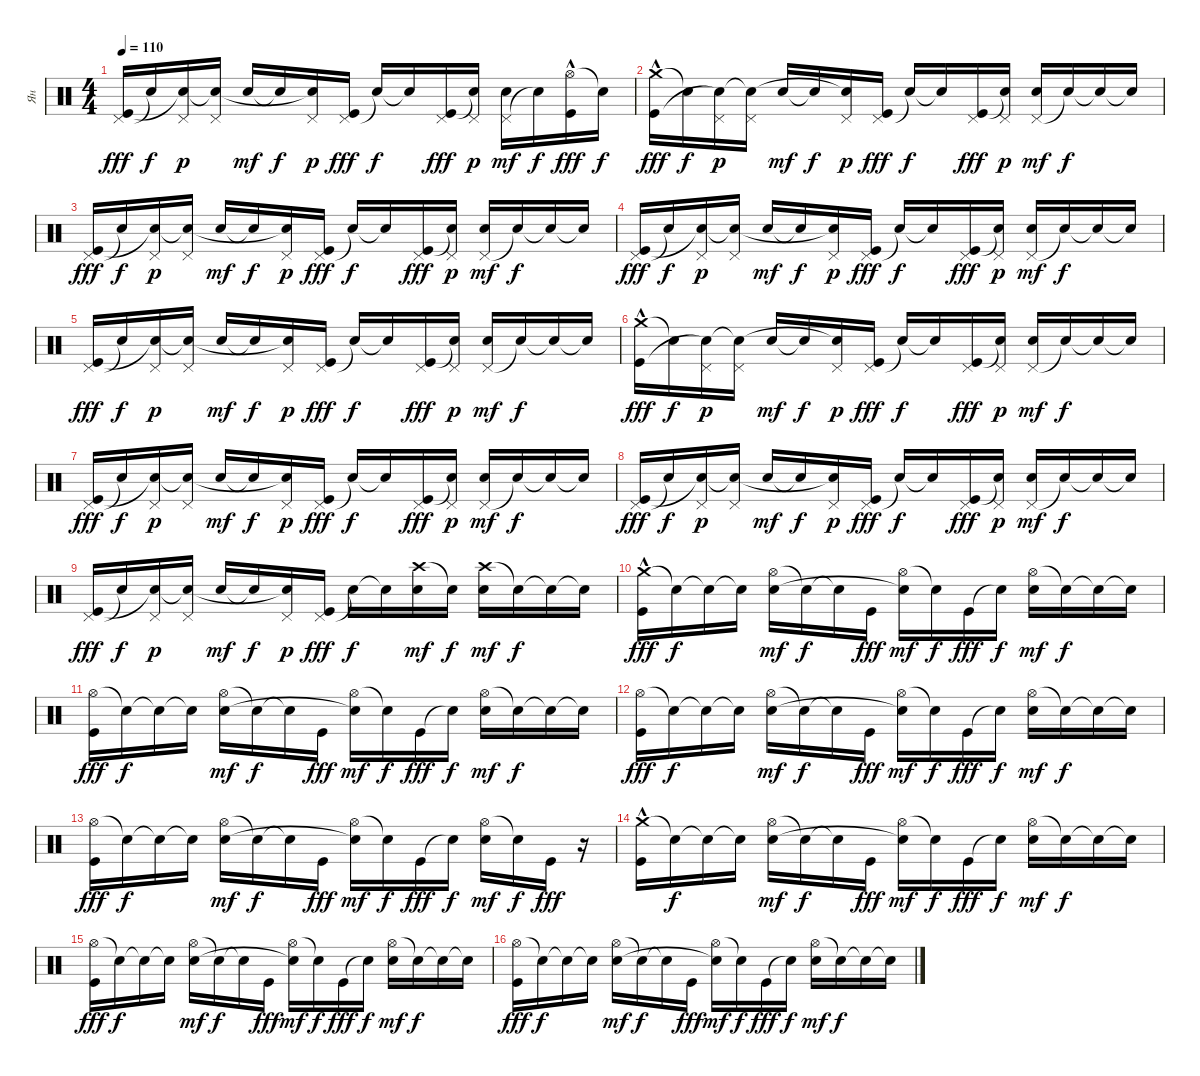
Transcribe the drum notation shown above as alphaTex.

\track ("Ян " "Ян ") {instrument percussion}
\staff
\articulation defaults
\ts (4 4)
\tempo 110
\clef neutral
\ks c
("Pedal Hi-Hat (hit)" "Kick (hit)").16{dy fff} "Snare (hit)"{t}.16{dy f} ("Pedal Hi-Hat (hit)" "Snare (hit)"{t}).16{dy p} ("Pedal Hi-Hat (hit)" "Snare (hit)"{t}).16 "Snare (hit) 2".16{dy mf} "Snare (hit)"{t}.16{dy f} ("Pedal Hi-Hat (hit)" "Snare (hit)"{t}).16{dy p} ("Pedal Hi-Hat (hit)" "Kick (hit)").16{dy fff} "Snare (hit)"{t}.16{dy f} "Snare (hit)"{t}.16 ("Pedal Hi-Hat (hit)" "Kick (hit)").16{dy fff} ("Pedal Hi-Hat (hit)" "Snare (hit)"{t}).16{dy p} ("Pedal Hi-Hat (hit)" "Snare (hit) 2").16{dy mf} "Snare (hit)"{t}.16{dy f} ("Hi-Hat (open)" "Kick (hit)"{hac}).16{dy fff} "Snare (hit)"{t}.16{dy f} |
("Crash medium (hit)" "Kick (hit)"{hac}).16{dy fff} "Snare (hit)"{t}.16{dy f} ("Pedal Hi-Hat (hit)" "Snare (hit)"{t}).16{dy p} ("Pedal Hi-Hat (hit)" "Snare (hit)"{t}).16 "Snare (hit) 2".16{dy mf} "Snare (hit)"{t}.16{dy f} ("Pedal Hi-Hat (hit)" "Snare (hit)"{t}).16{dy p} ("Pedal Hi-Hat (hit)" "Kick (hit)").16{dy fff} "Snare (hit)"{t}.16{dy f} "Snare (hit)"{t}.16 ("Pedal Hi-Hat (hit)" "Kick (hit)").16{dy fff} ("Pedal Hi-Hat (hit)" "Snare (hit)"{t}).16{dy p} ("Pedal Hi-Hat (hit)" "Snare (hit) 2").16{dy mf} "Snare (hit)"{t}.16{dy f} "Snare (hit)"{t}.16 "Snare (hit)"{t}.16 |
("Pedal Hi-Hat (hit)" "Kick (hit)").16{dy fff} "Snare (hit)"{t}.16{dy f} ("Pedal Hi-Hat (hit)" "Snare (hit)"{t}).16{dy p} ("Pedal Hi-Hat (hit)" "Snare (hit)"{t}).16 "Snare (hit) 2".16{dy mf} "Snare (hit)"{t}.16{dy f} ("Pedal Hi-Hat (hit)" "Snare (hit)"{t}).16{dy p} ("Pedal Hi-Hat (hit)" "Kick (hit)").16{dy fff} "Snare (hit)"{t}.16{dy f} "Snare (hit)"{t}.16 ("Pedal Hi-Hat (hit)" "Kick (hit)").16{dy fff} ("Pedal Hi-Hat (hit)" "Snare (hit)"{t}).16{dy p} ("Pedal Hi-Hat (hit)" "Snare (hit) 2").16{dy mf} "Snare (hit)"{t}.16{dy f} "Snare (hit)"{t}.16 "Snare (hit)"{t}.16 |
("Pedal Hi-Hat (hit)" "Kick (hit)").16{dy fff} "Snare (hit)"{t}.16{dy f} ("Pedal Hi-Hat (hit)" "Snare (hit)"{t}).16{dy p} ("Pedal Hi-Hat (hit)" "Snare (hit)"{t}).16 "Snare (hit) 2".16{dy mf} "Snare (hit)"{t}.16{dy f} ("Pedal Hi-Hat (hit)" "Snare (hit)"{t}).16{dy p} ("Pedal Hi-Hat (hit)" "Kick (hit)").16{dy fff} "Snare (hit)"{t}.16{dy f} "Snare (hit)"{t}.16 ("Pedal Hi-Hat (hit)" "Kick (hit)").16{dy fff} ("Pedal Hi-Hat (hit)" "Snare (hit)"{t}).16{dy p} ("Pedal Hi-Hat (hit)" "Snare (hit) 2").16{dy mf} "Snare (hit)"{t}.16{dy f} "Snare (hit)"{t}.16 "Snare (hit)"{t}.16 |
("Pedal Hi-Hat (hit)" "Kick (hit)").16{dy fff} "Snare (hit)"{t}.16{dy f} ("Pedal Hi-Hat (hit)" "Snare (hit)"{t}).16{dy p} ("Pedal Hi-Hat (hit)" "Snare (hit)"{t}).16 "Snare (hit) 2".16{dy mf} "Snare (hit)"{t}.16{dy f} ("Pedal Hi-Hat (hit)" "Snare (hit)"{t}).16{dy p} ("Pedal Hi-Hat (hit)" "Kick (hit)").16{dy fff} "Snare (hit)"{t}.16{dy f} "Snare (hit)"{t}.16 ("Pedal Hi-Hat (hit)" "Kick (hit)").16{dy fff} ("Pedal Hi-Hat (hit)" "Snare (hit)"{t}).16{dy p} ("Pedal Hi-Hat (hit)" "Snare (hit) 2").16{dy mf} "Snare (hit)"{t}.16{dy f} "Snare (hit)"{t}.16 "Snare (hit)"{t}.16 |
("Crash medium (hit)" "Kick (hit)"{hac}).16{dy fff} "Snare (hit)"{t}.16{dy f} ("Pedal Hi-Hat (hit)" "Snare (hit)"{t}).16{dy p} ("Pedal Hi-Hat (hit)" "Snare (hit)"{t}).16 "Snare (hit) 2".16{dy mf} "Snare (hit)"{t}.16{dy f} ("Pedal Hi-Hat (hit)" "Snare (hit)"{t}).16{dy p} ("Pedal Hi-Hat (hit)" "Kick (hit)").16{dy fff} "Snare (hit)"{t}.16{dy f} "Snare (hit)"{t}.16 ("Pedal Hi-Hat (hit)" "Kick (hit)").16{dy fff} ("Pedal Hi-Hat (hit)" "Snare (hit)"{t}).16{dy p} ("Pedal Hi-Hat (hit)" "Snare (hit) 2").16{dy mf} "Snare (hit)"{t}.16{dy f} "Snare (hit)"{t}.16 "Snare (hit)"{t}.16 |
("Pedal Hi-Hat (hit)" "Kick (hit)").16{dy fff} "Snare (hit)"{t}.16{dy f} ("Pedal Hi-Hat (hit)" "Snare (hit)"{t}).16{dy p} ("Pedal Hi-Hat (hit)" "Snare (hit)"{t}).16 "Snare (hit) 2".16{dy mf} "Snare (hit)"{t}.16{dy f} ("Pedal Hi-Hat (hit)" "Snare (hit)"{t}).16{dy p} ("Pedal Hi-Hat (hit)" "Kick (hit)").16{dy fff} "Snare (hit)"{t}.16{dy f} "Snare (hit)"{t}.16 ("Pedal Hi-Hat (hit)" "Kick (hit)").16{dy fff} ("Pedal Hi-Hat (hit)" "Snare (hit)"{t}).16{dy p} ("Pedal Hi-Hat (hit)" "Snare (hit) 2").16{dy mf} "Snare (hit)"{t}.16{dy f} "Snare (hit)"{t}.16 "Snare (hit)"{t}.16 |
("Pedal Hi-Hat (hit)" "Kick (hit)").16{dy fff} "Snare (hit)"{t}.16{dy f} ("Pedal Hi-Hat (hit)" "Snare (hit)"{t}).16{dy p} ("Pedal Hi-Hat (hit)" "Snare (hit)"{t}).16 "Snare (hit) 2".16{dy mf} "Snare (hit)"{t}.16{dy f} ("Pedal Hi-Hat (hit)" "Snare (hit)"{t}).16{dy p} ("Pedal Hi-Hat (hit)" "Kick (hit)").16{dy fff} "Snare (hit)"{t}.16{dy f} "Snare (hit)"{t}.16 ("Pedal Hi-Hat (hit)" "Kick (hit)").16{dy fff} ("Pedal Hi-Hat (hit)" "Snare (hit)"{t}).16{dy p} ("Pedal Hi-Hat (hit)" "Snare (hit) 2").16{dy mf} "Snare (hit)"{t}.16{dy f} "Snare (hit)"{t}.16 "Snare (hit)"{t}.16 |
("Pedal Hi-Hat (hit)" "Kick (hit)").16{dy fff} "Snare (hit)"{t}.16{dy f} ("Pedal Hi-Hat (hit)" "Snare (hit)"{t}).16{dy p} ("Pedal Hi-Hat (hit)" "Snare (hit)"{t}).16 "Snare (hit) 2".16{dy mf} "Snare (hit)"{t}.16{dy f} ("Pedal Hi-Hat (hit)" "Snare (hit)"{t}).16{dy p} ("Pedal Hi-Hat (hit)" "Kick (hit)").16{dy fff} "Snare (hit)"{t}.16{dy f} "Snare (hit)"{t}.16 ("Crash high (hit)" "Snare (hit) 2").16{dy mf} "Snare (hit)"{t}.16{dy f} ("Crash high (hit)" "Snare (hit) 2").16{dy mf} "Snare (hit)"{t}.16{dy f} "Snare (hit)"{t}.16 "Snare (hit)"{t}.16 |
("Crash medium (hit)" "Kick (hit)"{hac}).16{dy fff} "Snare (hit)"{t}.16{dy f} "Snare (hit)"{t}.16 "Snare (hit)"{t}.16 ("Hi-Hat (open)" "Snare (hit) 2").16{dy mf} "Snare (hit)"{t}.16{dy f} "Snare (hit)"{t}.16 "Kick (hit)".16{dy fff} ("Hi-Hat (open)" "Snare (hit)"{t}).16{dy mf} "Snare (hit)"{t}.16{dy f} "Kick (hit)".16{dy fff} "Snare (hit)"{t}.16{dy f} ("Hi-Hat (open)" "Snare (hit) 2").16{dy mf} "Snare (hit)"{t}.16{dy f} "Snare (hit)"{t}.16 "Snare (hit)"{t}.16 |
("Hi-Hat (open)" "Kick (hit)").16{dy fff} "Snare (hit)"{t}.16{dy f} "Snare (hit)"{t}.16 "Snare (hit)"{t}.16 ("Hi-Hat (open)" "Snare (hit) 2").16{dy mf} "Snare (hit)"{t}.16{dy f} "Snare (hit)"{t}.16 "Kick (hit)".16{dy fff} ("Hi-Hat (open)" "Snare (hit)"{t}).16{dy mf} "Snare (hit)"{t}.16{dy f} "Kick (hit)".16{dy fff} "Snare (hit)"{t}.16{dy f} ("Hi-Hat (open)" "Snare (hit) 2").16{dy mf} "Snare (hit)"{t}.16{dy f} "Snare (hit)"{t}.16 "Snare (hit)"{t}.16 |
("Hi-Hat (open)" "Kick (hit)").16{dy fff} "Snare (hit)"{t}.16{dy f} "Snare (hit)"{t}.16 "Snare (hit)"{t}.16 ("Hi-Hat (open)" "Snare (hit) 2").16{dy mf} "Snare (hit)"{t}.16{dy f} "Snare (hit)"{t}.16 "Kick (hit)".16{dy fff} ("Hi-Hat (open)" "Snare (hit)"{t}).16{dy mf} "Snare (hit)"{t}.16{dy f} "Kick (hit)".16{dy fff} "Snare (hit)"{t}.16{dy f} ("Hi-Hat (open)" "Snare (hit) 2").16{dy mf} "Snare (hit)"{t}.16{dy f} "Snare (hit)"{t}.16 "Snare (hit)"{t}.16 |
("Hi-Hat (open)" "Kick (hit)").16{dy fff} "Snare (hit)"{t}.16{dy f} "Snare (hit)"{t}.16 "Snare (hit)"{t}.16 ("Hi-Hat (open)" "Snare (hit) 2").16{dy mf} "Snare (hit)"{t}.16{dy f} "Snare (hit)"{t}.16 "Kick (hit)".16{dy fff} ("Hi-Hat (open)" "Snare (hit)"{t}).16{dy mf} "Snare (hit)"{t}.16{dy f} "Kick (hit)".16{dy fff} "Snare (hit)"{t}.16{dy f} ("Hi-Hat (open)" "Snare (hit) 2").16{dy mf} "Snare (hit)"{t}.16{dy f} "Kick (hit)".16{dy fff} r.16 |
("Crash medium (hit)" "Kick (hit)"{hac}).16 "Snare (hit)"{t}.16{dy f} "Snare (hit)"{t}.16 "Snare (hit)"{t}.16 ("Hi-Hat (open)" "Snare (hit) 2").16{dy mf} "Snare (hit)"{t}.16{dy f} "Snare (hit)"{t}.16 "Kick (hit)".16{dy fff} ("Hi-Hat (open)" "Snare (hit)"{t}).16{dy mf} "Snare (hit)"{t}.16{dy f} "Kick (hit)".16{dy fff} "Snare (hit)"{t}.16{dy f} ("Hi-Hat (open)" "Snare (hit) 2").16{dy mf} "Snare (hit)"{t}.16{dy f} "Snare (hit)"{t}.16 "Snare (hit)"{t}.16 |
("Hi-Hat (open)" "Kick (hit)").16{dy fff} "Snare (hit)"{t}.16{dy f} "Snare (hit)"{t}.16 "Snare (hit)"{t}.16 ("Hi-Hat (open)" "Snare (hit) 2").16{dy mf} "Snare (hit)"{t}.16{dy f} "Snare (hit)"{t}.16 "Kick (hit)".16{dy fff} ("Hi-Hat (open)" "Snare (hit)"{t}).16{dy mf} "Snare (hit)"{t}.16{dy f} "Kick (hit)".16{dy fff} "Snare (hit)"{t}.16{dy f} ("Hi-Hat (open)" "Snare (hit) 2").16{dy mf} "Snare (hit)"{t}.16{dy f} "Snare (hit)"{t}.16 "Snare (hit)"{t}.16 |
("Hi-Hat (open)" "Kick (hit)").16{dy fff} "Snare (hit)"{t}.16{dy f} "Snare (hit)"{t}.16 "Snare (hit)"{t}.16 ("Hi-Hat (open)" "Snare (hit) 2").16{dy mf} "Snare (hit)"{t}.16{dy f} "Snare (hit)"{t}.16 "Kick (hit)".16{dy fff} ("Hi-Hat (open)" "Snare (hit)"{t}).16{dy mf} "Snare (hit)"{t}.16{dy f} "Kick (hit)".16{dy fff} "Snare (hit)"{t}.16{dy f} ("Hi-Hat (open)" "Snare (hit) 2").16{dy mf} "Snare (hit)"{t}.16{dy f} "Snare (hit)"{t}.16 "Snare (hit)"{t}.16
